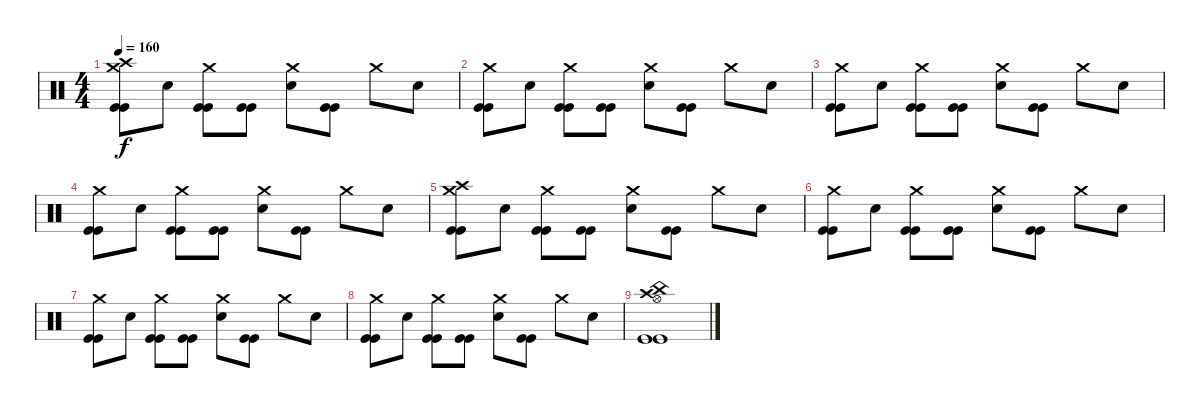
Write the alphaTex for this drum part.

\track ("  " "  ") {instrument percussion}
\staff {score}
\articulation defaults
\ts (4 4)
\tempo 160
\clef neutral
\ks c
("Crash high (hit)" "Crash medium (hit)" "Kick (hit)" "Kick (hit)").8{dy f} "Electric Snare (hit)".8 ("Crash medium (hit)" "Kick (hit)" "Kick (hit)").8 ("Kick (hit)" "Kick (hit)").8 ("Crash medium (hit)" "Electric Snare (hit)").8 ("Kick (hit)" "Kick (hit)").8 "Crash medium (hit)".8 "Electric Snare (hit)".8 |
("Crash medium (hit)" "Kick (hit)" "Kick (hit)").8 "Electric Snare (hit)".8 ("Crash medium (hit)" "Kick (hit)" "Kick (hit)").8 ("Kick (hit)" "Kick (hit)").8 ("Crash medium (hit)" "Electric Snare (hit)").8 ("Kick (hit)" "Kick (hit)").8 "Crash medium (hit)".8 "Electric Snare (hit)".8 |
("Crash medium (hit)" "Kick (hit)" "Kick (hit)").8 "Electric Snare (hit)".8 ("Crash medium (hit)" "Kick (hit)" "Kick (hit)").8 ("Kick (hit)" "Kick (hit)").8 ("Crash medium (hit)" "Electric Snare (hit)").8 ("Kick (hit)" "Kick (hit)").8 "Crash medium (hit)".8 "Electric Snare (hit)".8 |
("Crash medium (hit)" "Kick (hit)" "Kick (hit)").8 "Electric Snare (hit)".8 ("Crash medium (hit)" "Kick (hit)" "Kick (hit)").8 ("Kick (hit)" "Kick (hit)").8 ("Crash medium (hit)" "Electric Snare (hit)").8 ("Kick (hit)" "Kick (hit)").8 "Crash medium (hit)".8 "Electric Snare (hit)".8 |
("Crash high (hit)" "Crash medium (hit)" "Kick (hit)" "Kick (hit)").8 "Electric Snare (hit)".8 ("Crash medium (hit)" "Kick (hit)" "Kick (hit)").8 ("Kick (hit)" "Kick (hit)").8 ("Crash medium (hit)" "Electric Snare (hit)").8 ("Kick (hit)" "Kick (hit)").8 "Crash medium (hit)".8 "Electric Snare (hit)".8 |
("Crash medium (hit)" "Kick (hit)" "Kick (hit)").8 "Electric Snare (hit)".8 ("Crash medium (hit)" "Kick (hit)" "Kick (hit)").8 ("Kick (hit)" "Kick (hit)").8 ("Crash medium (hit)" "Electric Snare (hit)").8 ("Kick (hit)" "Kick (hit)").8 "Crash medium (hit)".8 "Electric Snare (hit)".8 |
("Crash medium (hit)" "Kick (hit)" "Kick (hit)").8 "Electric Snare (hit)".8 ("Crash medium (hit)" "Kick (hit)" "Kick (hit)").8 ("Kick (hit)" "Kick (hit)").8 ("Crash medium (hit)" "Electric Snare (hit)").8 ("Kick (hit)" "Kick (hit)").8 "Crash medium (hit)".8 "Electric Snare (hit)".8 |
("Crash medium (hit)" "Kick (hit)" "Kick (hit)").8 "Electric Snare (hit)".8 ("Crash medium (hit)" "Kick (hit)" "Kick (hit)").8 ("Kick (hit)" "Kick (hit)").8 ("Crash medium (hit)" "Electric Snare (hit)").8 ("Kick (hit)" "Kick (hit)").8 "Crash medium (hit)".8 "Electric Snare (hit)".8 |
("Crash high (hit)" "China (hit)" "Hi-Hat (open)" "Kick (hit)" "Kick (hit)").1
